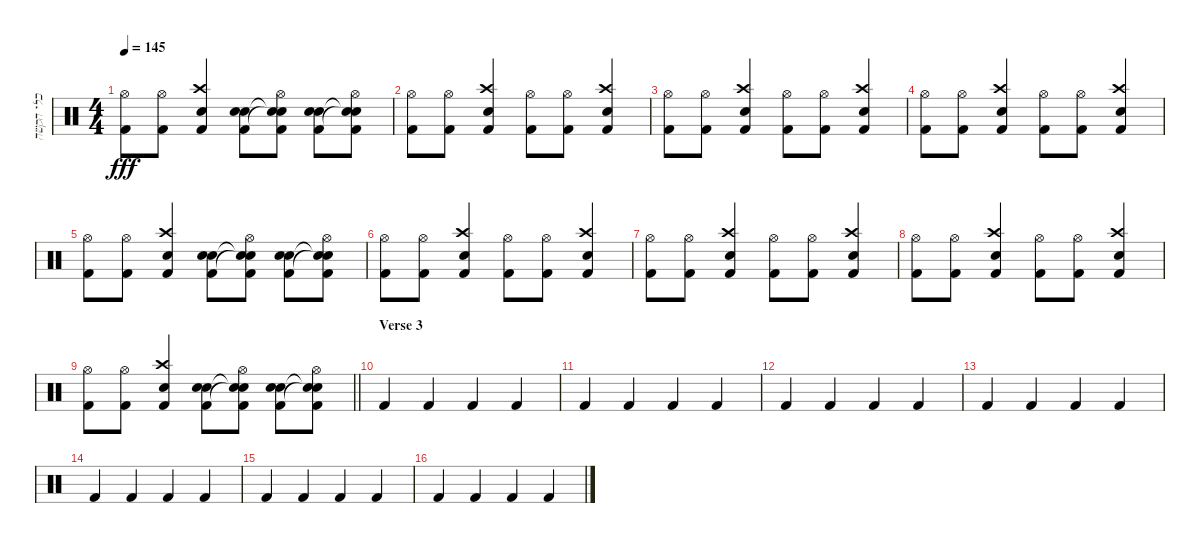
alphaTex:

\track ("כלי הקשה" "כלי הקשה") {instrument percussion bank 127}
\staff {score}
\articulation defaults
\ts (4 4)
\tempo 145
\clef neutral
\ks c
("Hi-Hat (open)" "Kick (hit) 2").8{dy fff} ("Hi-Hat (open)" "Kick (hit) 2").8 ("Crash high (hit)" "Snare (hit) 2" "Kick (hit) 2").4 ("Snare (hit) 2" "Snare (hit) 2" "Kick (hit) 2").8 ("Hi-Hat (open)" "Snare (hit)"{t} "Snare (hit)"{t} "Kick (hit) 2").8 ("Snare (hit) 2" "Snare (hit) 2" "Kick (hit) 2").8 ("Hi-Hat (open)" "Snare (hit)"{t} "Snare (hit)"{t} "Kick (hit) 2").8 |
("Hi-Hat (open)" "Kick (hit) 2").8 ("Hi-Hat (open)" "Kick (hit) 2").8 ("Crash high (hit)" "Snare (hit) 2" "Kick (hit) 2").4 ("Hi-Hat (open)" "Kick (hit) 2").8 ("Hi-Hat (open)" "Kick (hit) 2").8 ("Crash high (hit)" "Snare (hit) 2" "Kick (hit) 2").4 |
("Hi-Hat (open)" "Kick (hit) 2").8 ("Hi-Hat (open)" "Kick (hit) 2").8 ("Crash high (hit)" "Snare (hit) 2" "Kick (hit) 2").4 ("Hi-Hat (open)" "Kick (hit) 2").8 ("Hi-Hat (open)" "Kick (hit) 2").8 ("Crash high (hit)" "Snare (hit) 2" "Kick (hit) 2").4 |
("Hi-Hat (open)" "Kick (hit) 2").8 ("Hi-Hat (open)" "Kick (hit) 2").8 ("Crash high (hit)" "Snare (hit) 2" "Kick (hit) 2").4 ("Hi-Hat (open)" "Kick (hit) 2").8 ("Hi-Hat (open)" "Kick (hit) 2").8 ("Crash high (hit)" "Snare (hit) 2" "Kick (hit) 2").4 |
("Hi-Hat (open)" "Kick (hit) 2").8 ("Hi-Hat (open)" "Kick (hit) 2").8 ("Crash high (hit)" "Snare (hit) 2" "Kick (hit) 2").4 ("Snare (hit) 2" "Snare (hit) 2" "Kick (hit) 2").8 ("Hi-Hat (open)" "Snare (hit)"{t} "Snare (hit)"{t} "Kick (hit) 2").8 ("Snare (hit) 2" "Snare (hit) 2" "Kick (hit) 2").8 ("Hi-Hat (open)" "Snare (hit)"{t} "Snare (hit)"{t} "Kick (hit) 2").8 |
("Hi-Hat (open)" "Kick (hit) 2").8 ("Hi-Hat (open)" "Kick (hit) 2").8 ("Crash high (hit)" "Snare (hit) 2" "Kick (hit) 2").4 ("Hi-Hat (open)" "Kick (hit) 2").8 ("Hi-Hat (open)" "Kick (hit) 2").8 ("Crash high (hit)" "Snare (hit) 2" "Kick (hit) 2").4 |
("Hi-Hat (open)" "Kick (hit) 2").8 ("Hi-Hat (open)" "Kick (hit) 2").8 ("Crash high (hit)" "Snare (hit) 2" "Kick (hit) 2").4 ("Hi-Hat (open)" "Kick (hit) 2").8 ("Hi-Hat (open)" "Kick (hit) 2").8 ("Crash high (hit)" "Snare (hit) 2" "Kick (hit) 2").4 |
("Hi-Hat (open)" "Kick (hit) 2").8 ("Hi-Hat (open)" "Kick (hit) 2").8 ("Crash high (hit)" "Snare (hit) 2" "Kick (hit) 2").4 ("Hi-Hat (open)" "Kick (hit) 2").8 ("Hi-Hat (open)" "Kick (hit) 2").8 ("Crash high (hit)" "Snare (hit) 2" "Kick (hit) 2").4 |
\barLineRight lightlight
("Hi-Hat (open)" "Kick (hit) 2").8 ("Hi-Hat (open)" "Kick (hit) 2").8 ("Crash high (hit)" "Snare (hit) 2" "Kick (hit) 2").4 ("Snare (hit) 2" "Snare (hit) 2" "Kick (hit) 2").8 ("Hi-Hat (open)" "Snare (hit)"{t} "Snare (hit)"{t} "Kick (hit) 2").8 ("Snare (hit) 2" "Snare (hit) 2" "Kick (hit) 2").8 ("Hi-Hat (open)" "Snare (hit)"{t} "Snare (hit)"{t} "Kick (hit) 2").8 |
\section ("" "Verse 3")
"Kick (hit) 2".4{volume 12} "Kick (hit) 2".4 "Kick (hit) 2".4 "Kick (hit) 2".4 |
"Kick (hit) 2".4 "Kick (hit) 2".4 "Kick (hit) 2".4 "Kick (hit) 2".4 |
"Kick (hit) 2".4 "Kick (hit) 2".4 "Kick (hit) 2".4 "Kick (hit) 2".4 |
"Kick (hit) 2".4 "Kick (hit) 2".4 "Kick (hit) 2".4 "Kick (hit) 2".4 |
"Kick (hit) 2".4{volume 12} "Kick (hit) 2".4 "Kick (hit) 2".4 "Kick (hit) 2".4 |
"Kick (hit) 2".4 "Kick (hit) 2".4 "Kick (hit) 2".4 "Kick (hit) 2".4 |
"Kick (hit) 2".4 "Kick (hit) 2".4 "Kick (hit) 2".4 "Kick (hit) 2".4
